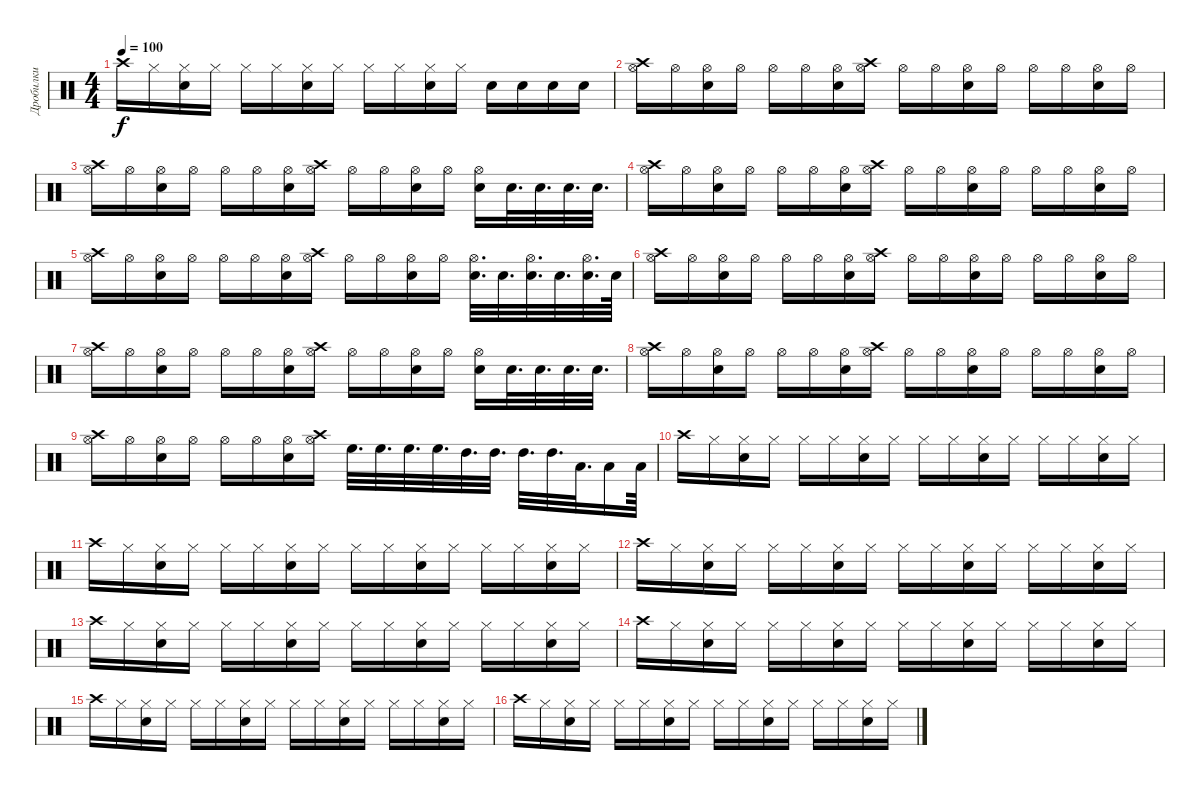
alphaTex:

\track ("Дробилки" "Дробилки") {instrument percussion}
\staff {score}
\articulation defaults
\ts (4 4)
\tempo 100
\clef neutral
\ks c "Crash high (hit)".16{dy f} "Hi-Hat (closed)".16
("Hi-Hat (closed)" "Snare (hit) 2").16 "Hi-Hat (closed)".16 "Hi-Hat (closed)".16 "Hi-Hat (closed)".16 ("Hi-Hat (closed)" "Snare (hit) 2").16 "Hi-Hat (closed)".16 "Hi-Hat (closed)".16 "Hi-Hat (closed)".16 ("Hi-Hat (closed)" "Snare (hit) 2").16 "Hi-Hat (closed)".16 "Snare (hit) 2".16 "Snare (hit) 2".16 "Snare (hit) 2".16 "Snare (hit) 2".16 |
("Hi-Hat (open)" "Crash high (hit)").16 "Hi-Hat (open)".16 ("Hi-Hat (open)" "Snare (hit) 2").16 "Hi-Hat (open)".16 "Hi-Hat (open)".16 "Hi-Hat (open)".16 ("Hi-Hat (open)" "Snare (hit) 2").16 ("Hi-Hat (open)" "Crash high (hit)").16 "Hi-Hat (open)".16 "Hi-Hat (open)".16 ("Hi-Hat (open)" "Snare (hit) 2").16 "Hi-Hat (open)".16 "Hi-Hat (open)".16 "Hi-Hat (open)".16 ("Hi-Hat (open)" "Snare (hit) 2").16 "Hi-Hat (open)".16 |
("Hi-Hat (open)" "Crash high (hit)").16 "Hi-Hat (open)".16 ("Hi-Hat (open)" "Snare (hit) 2").16 "Hi-Hat (open)".16 "Hi-Hat (open)".16 "Hi-Hat (open)".16 ("Hi-Hat (open)" "Snare (hit) 2").16 ("Hi-Hat (open)" "Crash high (hit)").16 "Hi-Hat (open)".16 "Hi-Hat (open)".16 ("Hi-Hat (open)" "Snare (hit) 2").16 "Hi-Hat (open)".16 ("Hi-Hat (open)" "Snare (hit) 2").16 "Snare (hit) 2".32{d} "Snare (hit) 2".32{d} "Snare (hit) 2".32{d} "Snare (hit) 2".32{d} |
("Hi-Hat (open)" "Crash high (hit)").16 "Hi-Hat (open)".16 ("Hi-Hat (open)" "Snare (hit) 2").16 "Hi-Hat (open)".16 "Hi-Hat (open)".16 "Hi-Hat (open)".16 ("Hi-Hat (open)" "Snare (hit) 2").16 ("Hi-Hat (open)" "Crash high (hit)").16 "Hi-Hat (open)".16 "Hi-Hat (open)".16 ("Hi-Hat (open)" "Snare (hit) 2").16 "Hi-Hat (open)".16 "Hi-Hat (open)".16 "Hi-Hat (open)".16 ("Hi-Hat (open)" "Snare (hit) 2").16 "Hi-Hat (open)".16 |
("Hi-Hat (open)" "Crash high (hit)").16 "Hi-Hat (open)".16 ("Hi-Hat (open)" "Snare (hit) 2").16 "Hi-Hat (open)".16 "Hi-Hat (open)".16 "Hi-Hat (open)".16 ("Hi-Hat (open)" "Snare (hit) 2").16 ("Hi-Hat (open)" "Crash high (hit)").16 "Hi-Hat (open)".16 "Hi-Hat (open)".16 ("Hi-Hat (open)" "Snare (hit) 2").16 "Hi-Hat (open)".16 ("Hi-Hat (open)" "Snare (hit) 2").32{d} "Snare (hit) 2".32{d} ("Hi-Hat (open)" "Snare (hit) 2").32{d} "Snare (hit) 2".32{d} ("Hi-Hat (open)" "Snare (hit) 2").32{d} "Snare (hit) 2".64 |
("Hi-Hat (open)" "Crash high (hit)").16 "Hi-Hat (open)".16 ("Hi-Hat (open)" "Snare (hit) 2").16 "Hi-Hat (open)".16 "Hi-Hat (open)".16 "Hi-Hat (open)".16 ("Hi-Hat (open)" "Snare (hit) 2").16 ("Hi-Hat (open)" "Crash high (hit)").16 "Hi-Hat (open)".16 "Hi-Hat (open)".16 ("Hi-Hat (open)" "Snare (hit) 2").16 "Hi-Hat (open)".16 "Hi-Hat (open)".16 "Hi-Hat (open)".16 ("Hi-Hat (open)" "Snare (hit) 2").16 "Hi-Hat (open)".16 |
("Hi-Hat (open)" "Crash high (hit)").16 "Hi-Hat (open)".16 ("Hi-Hat (open)" "Snare (hit) 2").16 "Hi-Hat (open)".16 "Hi-Hat (open)".16 "Hi-Hat (open)".16 ("Hi-Hat (open)" "Snare (hit) 2").16 ("Hi-Hat (open)" "Crash high (hit)").16 "Hi-Hat (open)".16 "Hi-Hat (open)".16 ("Hi-Hat (open)" "Snare (hit) 2").16 "Hi-Hat (open)".16 ("Hi-Hat (open)" "Snare (hit) 2").16 "Snare (hit) 2".32{d} "Snare (hit) 2".32{d} "Snare (hit) 2".32{d} "Snare (hit) 2".32{d} |
("Hi-Hat (open)" "Crash high (hit)").16 "Hi-Hat (open)".16 ("Hi-Hat (open)" "Snare (hit) 2").16 "Hi-Hat (open)".16 "Hi-Hat (open)".16 "Hi-Hat (open)".16 ("Hi-Hat (open)" "Snare (hit) 2").16 ("Hi-Hat (open)" "Crash high (hit)").16 "Hi-Hat (open)".16 "Hi-Hat (open)".16 ("Hi-Hat (open)" "Snare (hit) 2").16 "Hi-Hat (open)".16 "Hi-Hat (open)".16 "Hi-Hat (open)".16 ("Hi-Hat (open)" "Snare (hit) 2").16 "Hi-Hat (open)".16 |
("Hi-Hat (open)" "Crash high (hit)").16 "Hi-Hat (open)".16 ("Hi-Hat (open)" "Snare (hit) 2").16 "Hi-Hat (open)".16 "Hi-Hat (open)".16 "Hi-Hat (open)".16 ("Hi-Hat (open)" "Snare (hit) 2").16 ("Hi-Hat (open)" "Crash high (hit)").16 "High Floor Tom (hit)".32{d} "High Floor Tom (hit)".32{d} "High Floor Tom (hit)".32{d} "High Floor Tom (hit)".32{d} "High Tom (hit)".32{d} "High Tom (hit)".32{d} "High Tom (hit)".32{d} "High Tom (hit)".32{d} "Low Tom (hit)".32{d} "Low Tom (hit)".16 "Low Tom (hit)".64 |
"Crash high (hit)".16 "Hi-Hat (closed)".16 ("Hi-Hat (closed)" "Snare (hit) 2").16 "Hi-Hat (closed)".16 "Hi-Hat (closed)".16 "Hi-Hat (closed)".16 ("Hi-Hat (closed)" "Snare (hit) 2").16 "Hi-Hat (closed)".16 "Hi-Hat (closed)".16 "Hi-Hat (closed)".16 ("Hi-Hat (closed)" "Snare (hit) 2").16 "Hi-Hat (closed)".16 "Hi-Hat (closed)".16 "Hi-Hat (closed)".16 ("Hi-Hat (closed)" "Snare (hit) 2").16 "Hi-Hat (closed)".16 |
"Crash high (hit)".16 "Hi-Hat (closed)".16 ("Hi-Hat (closed)" "Snare (hit) 2").16 "Hi-Hat (closed)".16 "Hi-Hat (closed)".16 "Hi-Hat (closed)".16 ("Hi-Hat (closed)" "Snare (hit) 2").16 "Hi-Hat (closed)".16 "Hi-Hat (closed)".16 "Hi-Hat (closed)".16 ("Hi-Hat (closed)" "Snare (hit) 2").16 "Hi-Hat (closed)".16 "Hi-Hat (closed)".16 "Hi-Hat (closed)".16 ("Hi-Hat (closed)" "Snare (hit) 2").16 "Hi-Hat (closed)".16 |
"Crash high (hit)".16 "Hi-Hat (closed)".16 ("Hi-Hat (closed)" "Snare (hit) 2").16 "Hi-Hat (closed)".16 "Hi-Hat (closed)".16 "Hi-Hat (closed)".16 ("Hi-Hat (closed)" "Snare (hit) 2").16 "Hi-Hat (closed)".16 "Hi-Hat (closed)".16 "Hi-Hat (closed)".16 ("Hi-Hat (closed)" "Snare (hit) 2").16 "Hi-Hat (closed)".16 "Hi-Hat (closed)".16 "Hi-Hat (closed)".16 ("Hi-Hat (closed)" "Snare (hit) 2").16 "Hi-Hat (closed)".16 |
"Crash high (hit)".16 "Hi-Hat (closed)".16 ("Hi-Hat (closed)" "Snare (hit) 2").16 "Hi-Hat (closed)".16 "Hi-Hat (closed)".16 "Hi-Hat (closed)".16 ("Hi-Hat (closed)" "Snare (hit) 2").16 "Hi-Hat (closed)".16 "Hi-Hat (closed)".16 "Hi-Hat (closed)".16 ("Hi-Hat (closed)" "Snare (hit) 2").16 "Hi-Hat (closed)".16 "Hi-Hat (closed)".16 "Hi-Hat (closed)".16 ("Hi-Hat (closed)" "Snare (hit) 2").16 "Hi-Hat (closed)".16 |
"Crash high (hit)".16 "Hi-Hat (closed)".16 ("Hi-Hat (closed)" "Snare (hit) 2").16 "Hi-Hat (closed)".16 "Hi-Hat (closed)".16 "Hi-Hat (closed)".16 ("Hi-Hat (closed)" "Snare (hit) 2").16 "Hi-Hat (closed)".16 "Hi-Hat (closed)".16 "Hi-Hat (closed)".16 ("Hi-Hat (closed)" "Snare (hit) 2").16 "Hi-Hat (closed)".16 "Hi-Hat (closed)".16 "Hi-Hat (closed)".16 ("Hi-Hat (closed)" "Snare (hit) 2").16 "Hi-Hat (closed)".16 |
"Crash high (hit)".16 "Hi-Hat (closed)".16 ("Hi-Hat (closed)" "Snare (hit) 2").16 "Hi-Hat (closed)".16 "Hi-Hat (closed)".16 "Hi-Hat (closed)".16 ("Hi-Hat (closed)" "Snare (hit) 2").16 "Hi-Hat (closed)".16 "Hi-Hat (closed)".16 "Hi-Hat (closed)".16 ("Hi-Hat (closed)" "Snare (hit) 2").16 "Hi-Hat (closed)".16 "Hi-Hat (closed)".16 "Hi-Hat (closed)".16 ("Hi-Hat (closed)" "Snare (hit) 2").16 "Hi-Hat (closed)".16 |
"Crash high (hit)".16 "Hi-Hat (closed)".16 ("Hi-Hat (closed)" "Snare (hit) 2").16 "Hi-Hat (closed)".16 "Hi-Hat (closed)".16 "Hi-Hat (closed)".16 ("Hi-Hat (closed)" "Snare (hit) 2").16 "Hi-Hat (closed)".16 "Hi-Hat (closed)".16 "Hi-Hat (closed)".16 ("Hi-Hat (closed)" "Snare (hit) 2").16 "Hi-Hat (closed)".16 "Hi-Hat (closed)".16 "Hi-Hat (closed)".16 ("Hi-Hat (closed)" "Snare (hit) 2").16 "Hi-Hat (closed)".16
